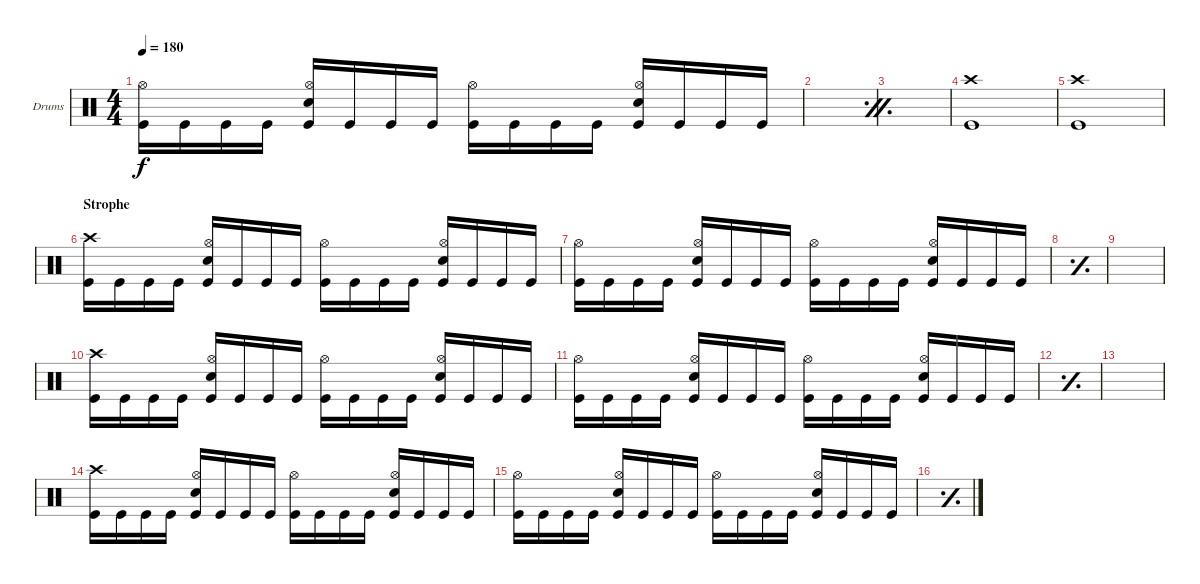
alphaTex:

\defaultSystemsLayout 4
\bracketExtendMode groupsimilarinstruments
\firstSystemTrackNameOrientation horizontal
\otherSystemsTrackNameOrientation horizontal
\track ("Drumkit" "Drums") {instrument percussion}
\staff {score}
\articulation defaults
\ts (4 4)
\tempo 180
\clef neutral
\ks c
("Kick (hit)" "Hi-Hat (open)").16{dy f} "Kick (hit)".16 "Kick (hit)".16 "Kick (hit)".16 ("Kick (hit)" "Snare (hit) 2" "Hi-Hat (open)").16 "Kick (hit)".16 "Kick (hit)".16 "Kick (hit)".16 ("Kick (hit)" "Hi-Hat (open)").16 "Kick (hit)".16 "Kick (hit)".16 "Kick (hit)".16 ("Kick (hit)" "Snare (hit) 2" "Hi-Hat (open)").16 "Kick (hit)".16 "Kick (hit)".16 "Kick (hit)".16 |
\simile firstofdouble
|
\simile secondofdouble
|
\simile none
("Kick (hit)" "Crash high (hit)").1 |
("Kick (hit)" "Crash high (hit)").1 |
\section ("" "Strophe")
("Kick (hit)" "Crash high (hit)").16 "Kick (hit)".16 "Kick (hit)".16 "Kick (hit)".16 ("Kick (hit)" "Snare (hit) 2" "Hi-Hat (open)").16 "Kick (hit)".16 "Kick (hit)".16 "Kick (hit)".16 ("Kick (hit)" "Hi-Hat (open)").16 "Kick (hit)".16 "Kick (hit)".16 "Kick (hit)".16 ("Kick (hit)" "Snare (hit) 2" "Hi-Hat (open)").16 "Kick (hit)".16 "Kick (hit)".16 "Kick (hit)".16 |
("Kick (hit)" "Hi-Hat (open)").16 "Kick (hit)".16 "Kick (hit)".16 "Kick (hit)".16 ("Kick (hit)" "Snare (hit) 2" "Hi-Hat (open)").16 "Kick (hit)".16 "Kick (hit)".16 "Kick (hit)".16 ("Kick (hit)" "Hi-Hat (open)").16 "Kick (hit)".16 "Kick (hit)".16 "Kick (hit)".16 ("Kick (hit)" "Snare (hit) 2" "Hi-Hat (open)").16 "Kick (hit)".16 "Kick (hit)".16 "Kick (hit)".16 |
\simile simple
|
|
\simile none
("Kick (hit)" "Crash high (hit)").16 "Kick (hit)".16 "Kick (hit)".16 "Kick (hit)".16 ("Kick (hit)" "Snare (hit) 2" "Hi-Hat (open)").16 "Kick (hit)".16 "Kick (hit)".16 "Kick (hit)".16 ("Kick (hit)" "Hi-Hat (open)").16 "Kick (hit)".16 "Kick (hit)".16 "Kick (hit)".16 ("Kick (hit)" "Snare (hit) 2" "Hi-Hat (open)").16 "Kick (hit)".16 "Kick (hit)".16 "Kick (hit)".16 |
("Kick (hit)" "Hi-Hat (open)").16 "Kick (hit)".16 "Kick (hit)".16 "Kick (hit)".16 ("Kick (hit)" "Snare (hit) 2" "Hi-Hat (open)").16 "Kick (hit)".16 "Kick (hit)".16 "Kick (hit)".16 ("Kick (hit)" "Hi-Hat (open)").16 "Kick (hit)".16 "Kick (hit)".16 "Kick (hit)".16 ("Kick (hit)" "Snare (hit) 2" "Hi-Hat (open)").16 "Kick (hit)".16 "Kick (hit)".16 "Kick (hit)".16 |
\simile simple
|
|
\simile none
("Kick (hit)" "Crash high (hit)").16 "Kick (hit)".16 "Kick (hit)".16 "Kick (hit)".16 ("Kick (hit)" "Snare (hit) 2" "Hi-Hat (open)").16 "Kick (hit)".16 "Kick (hit)".16 "Kick (hit)".16 ("Kick (hit)" "Hi-Hat (open)").16 "Kick (hit)".16 "Kick (hit)".16 "Kick (hit)".16 ("Kick (hit)" "Snare (hit) 2" "Hi-Hat (open)").16 "Kick (hit)".16 "Kick (hit)".16 "Kick (hit)".16 |
("Kick (hit)" "Hi-Hat (open)").16 "Kick (hit)".16 "Kick (hit)".16 "Kick (hit)".16 ("Kick (hit)" "Snare (hit) 2" "Hi-Hat (open)").16 "Kick (hit)".16 "Kick (hit)".16 "Kick (hit)".16 ("Kick (hit)" "Hi-Hat (open)").16 "Kick (hit)".16 "Kick (hit)".16 "Kick (hit)".16 ("Kick (hit)" "Snare (hit) 2" "Hi-Hat (open)").16 "Kick (hit)".16 "Kick (hit)".16 "Kick (hit)".16 |
\simile simple
